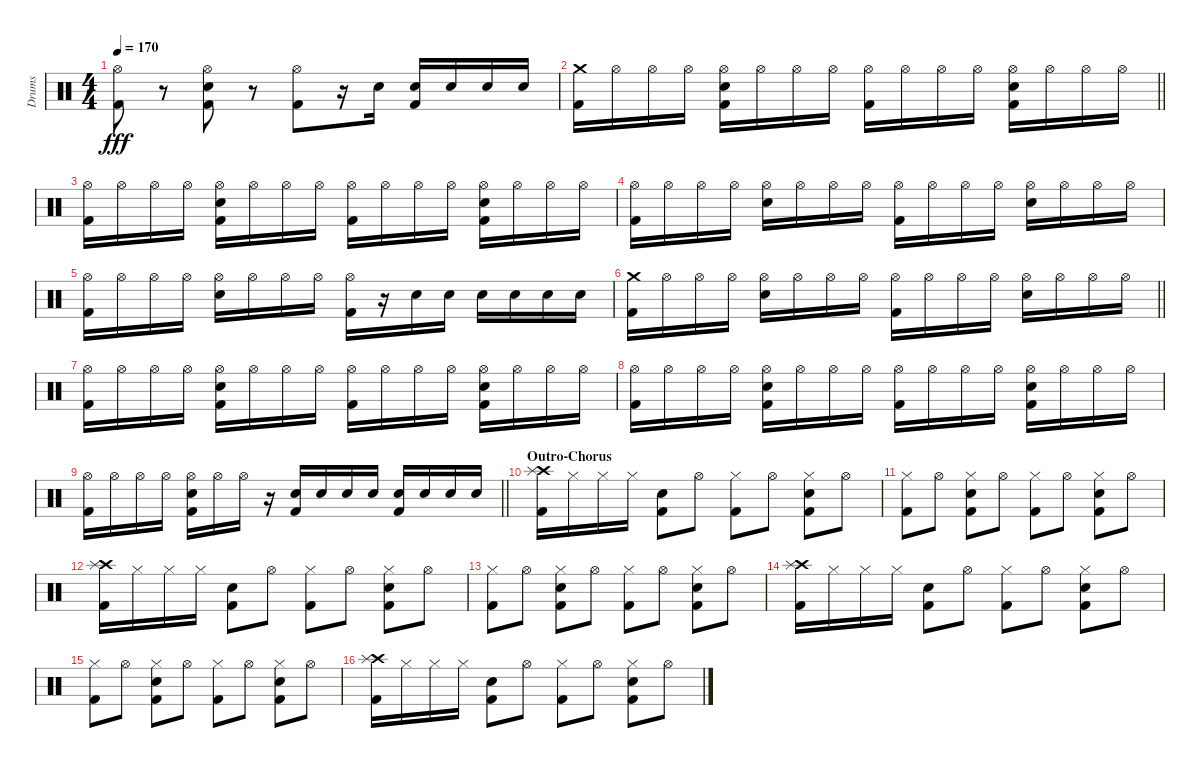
\track ("Drums" "Drums") {instrument percussion}
\staff {score}
\articulation defaults
\ts (4 4)
\tempo 170
\clef neutral
\ks c
("Hi-Hat (open)" "Kick (hit) 2").8{dy fff} r.8 ("Hi-Hat (open)" "Electric Snare (hit)" "Kick (hit) 2").8 r.8 ("Hi-Hat (open)" "Kick (hit) 2").8 r.16 "Electric Snare (hit)".16 ("Electric Snare (hit)" "Kick (hit) 2").16 "Electric Snare (hit)".16 "Electric Snare (hit)".16 "Electric Snare (hit)".16 |
\barLineRight lightlight
("Crash medium (hit)" "Kick (hit) 2").16 "Hi-Hat (open)".16 "Hi-Hat (open)".16 "Hi-Hat (open)".16 ("Hi-Hat (open)" "Electric Snare (hit)" "Kick (hit) 2").16 "Hi-Hat (open)".16 "Hi-Hat (open)".16 "Hi-Hat (open)".16 ("Hi-Hat (open)" "Kick (hit) 2").16 "Hi-Hat (open)".16 "Hi-Hat (open)".16 "Hi-Hat (open)".16 ("Hi-Hat (open)" "Electric Snare (hit)" "Kick (hit) 2").16 "Hi-Hat (open)".16 "Hi-Hat (open)".16 "Hi-Hat (open)".16 |
("Hi-Hat (open)" "Kick (hit) 2").16 "Hi-Hat (open)".16 "Hi-Hat (open)".16 "Hi-Hat (open)".16 ("Hi-Hat (open)" "Electric Snare (hit)" "Kick (hit) 2").16 "Hi-Hat (open)".16 "Hi-Hat (open)".16 "Hi-Hat (open)".16 ("Hi-Hat (open)" "Kick (hit) 2").16 "Hi-Hat (open)".16 "Hi-Hat (open)".16 "Hi-Hat (open)".16 ("Hi-Hat (open)" "Electric Snare (hit)" "Kick (hit) 2").16 "Hi-Hat (open)".16 "Hi-Hat (open)".16 "Hi-Hat (open)".16 |
("Hi-Hat (open)" "Kick (hit) 2").16 "Hi-Hat (open)".16 "Hi-Hat (open)".16 "Hi-Hat (open)".16 ("Hi-Hat (open)" "Electric Snare (hit)").16 "Hi-Hat (open)".16 "Hi-Hat (open)".16 "Hi-Hat (open)".16 ("Hi-Hat (open)" "Kick (hit) 2").16 "Hi-Hat (open)".16 "Hi-Hat (open)".16 "Hi-Hat (open)".16 ("Hi-Hat (open)" "Electric Snare (hit)").16 "Hi-Hat (open)".16 "Hi-Hat (open)".16 "Hi-Hat (open)".16 |
("Hi-Hat (open)" "Kick (hit) 2").16 "Hi-Hat (open)".16 "Hi-Hat (open)".16 "Hi-Hat (open)".16 ("Hi-Hat (open)" "Electric Snare (hit)").16 "Hi-Hat (open)".16 "Hi-Hat (open)".16 "Hi-Hat (open)".16 ("Hi-Hat (open)" "Kick (hit) 2").16 r.16 "Electric Snare (hit)".16 "Electric Snare (hit)".16 "Electric Snare (hit)".16 "Electric Snare (hit)".16 "Electric Snare (hit)".16 "Electric Snare (hit)".16 |
\barLineRight lightlight
("Crash medium (hit)" "Kick (hit) 2").16 "Hi-Hat (open)".16 "Hi-Hat (open)".16 "Hi-Hat (open)".16 ("Hi-Hat (open)" "Electric Snare (hit)").16 "Hi-Hat (open)".16 "Hi-Hat (open)".16 "Hi-Hat (open)".16 ("Hi-Hat (open)" "Kick (hit) 2").16 "Hi-Hat (open)".16 "Hi-Hat (open)".16 "Hi-Hat (open)".16 ("Hi-Hat (open)" "Electric Snare (hit)").16 "Hi-Hat (open)".16 "Hi-Hat (open)".16 "Hi-Hat (open)".16 |
("Hi-Hat (open)" "Kick (hit) 2").16 "Hi-Hat (open)".16 "Hi-Hat (open)".16 "Hi-Hat (open)".16 ("Hi-Hat (open)" "Electric Snare (hit)" "Kick (hit) 2").16 "Hi-Hat (open)".16 "Hi-Hat (open)".16 "Hi-Hat (open)".16 ("Hi-Hat (open)" "Kick (hit) 2").16 "Hi-Hat (open)".16 "Hi-Hat (open)".16 "Hi-Hat (open)".16 ("Hi-Hat (open)" "Electric Snare (hit)" "Kick (hit) 2").16 "Hi-Hat (open)".16 "Hi-Hat (open)".16 "Hi-Hat (open)".16 |
("Hi-Hat (open)" "Kick (hit) 2").16 "Hi-Hat (open)".16 "Hi-Hat (open)".16 "Hi-Hat (open)".16 ("Hi-Hat (open)" "Electric Snare (hit)" "Kick (hit) 2").16 "Hi-Hat (open)".16 "Hi-Hat (open)".16 "Hi-Hat (open)".16 ("Hi-Hat (open)" "Kick (hit) 2").16 "Hi-Hat (open)".16 "Hi-Hat (open)".16 "Hi-Hat (open)".16 ("Hi-Hat (open)" "Electric Snare (hit)" "Kick (hit) 2").16 "Hi-Hat (open)".16 "Hi-Hat (open)".16 "Hi-Hat (open)".16 |
\barLineRight lightlight
("Hi-Hat (open)" "Kick (hit) 2").16 "Hi-Hat (open)".16 "Hi-Hat (open)".16 "Hi-Hat (open)".16 ("Hi-Hat (open)" "Electric Snare (hit)" "Kick (hit) 2").16 "Hi-Hat (open)".16 "Hi-Hat (open)".16 r.16 ("Electric Snare (hit)" "Kick (hit) 2").16 "Electric Snare (hit)".16 "Electric Snare (hit)".16 "Electric Snare (hit)".16 ("Electric Snare (hit)" "Kick (hit) 2").16 "Electric Snare (hit)".16 "Electric Snare (hit)".16 "Electric Snare (hit)".16 |
\section ("" "Outro-Chorus")
("Crash high (hit)" "Kick (hit) 2" "Splash (hit)").16 "Hi-Hat (closed)".16 "Hi-Hat (closed)".16 "Hi-Hat (closed)".16 ("Electric Snare (hit)" "Kick (hit) 2").8 "Hi-Hat (open)".8 ("Hi-Hat (closed)" "Kick (hit) 2").8 "Hi-Hat (open)".8 ("Hi-Hat (closed)" "Electric Snare (hit)" "Kick (hit) 2").8 "Hi-Hat (open)".8 |
("Hi-Hat (closed)" "Kick (hit) 2").8 "Hi-Hat (open)".8 ("Hi-Hat (closed)" "Electric Snare (hit)" "Kick (hit) 2").8 "Hi-Hat (open)".8 ("Hi-Hat (closed)" "Kick (hit) 2").8 "Hi-Hat (open)".8 ("Hi-Hat (closed)" "Electric Snare (hit)" "Kick (hit) 2").8 "Hi-Hat (open)".8 |
("Crash high (hit)" "Kick (hit) 2" "Splash (hit)").16 "Hi-Hat (closed)".16 "Hi-Hat (closed)".16 "Hi-Hat (closed)".16 ("Electric Snare (hit)" "Kick (hit) 2").8 "Hi-Hat (open)".8 ("Hi-Hat (closed)" "Kick (hit) 2").8 "Hi-Hat (open)".8 ("Hi-Hat (closed)" "Electric Snare (hit)" "Kick (hit) 2").8 "Hi-Hat (open)".8 |
("Hi-Hat (closed)" "Kick (hit) 2").8 "Hi-Hat (open)".8 ("Hi-Hat (closed)" "Electric Snare (hit)" "Kick (hit) 2").8 "Hi-Hat (open)".8 ("Hi-Hat (closed)" "Kick (hit) 2").8 "Hi-Hat (open)".8 ("Hi-Hat (closed)" "Electric Snare (hit)" "Kick (hit) 2").8 "Hi-Hat (open)".8 |
("Crash high (hit)" "Kick (hit) 2" "Splash (hit)").16 "Hi-Hat (closed)".16 "Hi-Hat (closed)".16 "Hi-Hat (closed)".16 ("Electric Snare (hit)" "Kick (hit) 2").8 "Hi-Hat (open)".8 ("Hi-Hat (closed)" "Kick (hit) 2").8 "Hi-Hat (open)".8 ("Hi-Hat (closed)" "Electric Snare (hit)" "Kick (hit) 2").8 "Hi-Hat (open)".8 |
("Hi-Hat (closed)" "Kick (hit) 2").8 "Hi-Hat (open)".8 ("Hi-Hat (closed)" "Electric Snare (hit)" "Kick (hit) 2").8 "Hi-Hat (open)".8 ("Hi-Hat (closed)" "Kick (hit) 2").8 "Hi-Hat (open)".8 ("Hi-Hat (closed)" "Electric Snare (hit)" "Kick (hit) 2").8 "Hi-Hat (open)".8 |
("Crash high (hit)" "Kick (hit) 2" "Splash (hit)").16 "Hi-Hat (closed)".16 "Hi-Hat (closed)".16 "Hi-Hat (closed)".16 ("Electric Snare (hit)" "Kick (hit) 2").8 "Hi-Hat (open)".8 ("Hi-Hat (closed)" "Kick (hit) 2").8 "Hi-Hat (open)".8 ("Hi-Hat (closed)" "Electric Snare (hit)" "Kick (hit) 2").8 "Hi-Hat (open)".8
